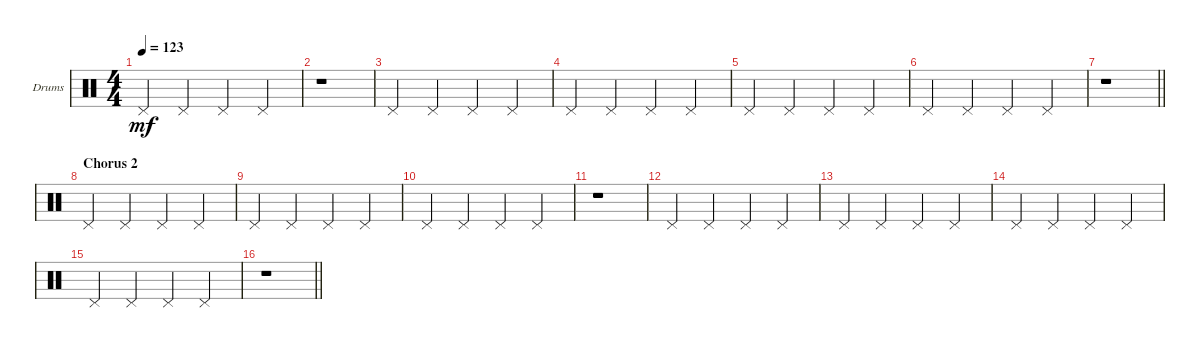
\defaultSystemsLayout 4
\bracketExtendMode groupsimilarinstruments
\firstSystemTrackNameOrientation horizontal
\otherSystemsTrackNameOrientation horizontal
\track ("Pedal Hithat" "Drums") {instrument percussion}
\staff {score}
\articulation defaults
\ts (4 4)
\tempo 123
\clef neutral
\scale
0.333333
\ks c "Pedal Hi-Hat (hit)".4{dy mf} "Pedal Hi-Hat (hit)".4 "Pedal Hi-Hat (hit)".4 "Pedal Hi-Hat (hit)".4
|
\scale
0.333333 r.1 |
\scale
0.333333 "Pedal Hi-Hat (hit)".4 "Pedal Hi-Hat (hit)".4 "Pedal Hi-Hat (hit)".4 "Pedal Hi-Hat (hit)".4 |
\scale
0.333333 "Pedal Hi-Hat (hit)".4 "Pedal Hi-Hat (hit)".4 "Pedal Hi-Hat (hit)".4 "Pedal Hi-Hat (hit)".4 |
\scale
0.333333 "Pedal Hi-Hat (hit)".4 "Pedal Hi-Hat (hit)".4 "Pedal Hi-Hat (hit)".4 "Pedal Hi-Hat (hit)".4 |
\scale
0.333333 "Pedal Hi-Hat (hit)".4 "Pedal Hi-Hat (hit)".4 "Pedal Hi-Hat (hit)".4 "Pedal Hi-Hat (hit)".4 |
\scale
0.333333
\barLineRight lightlight
r.1 |
\section ("" "Chorus 2")
\scale
0.333333 "Pedal Hi-Hat (hit)".4 "Pedal Hi-Hat (hit)".4 "Pedal Hi-Hat (hit)".4 "Pedal Hi-Hat (hit)".4 |
\scale
0.333333 "Pedal Hi-Hat (hit)".4 "Pedal Hi-Hat (hit)".4 "Pedal Hi-Hat (hit)".4 "Pedal Hi-Hat (hit)".4 |
\scale
0.333333 "Pedal Hi-Hat (hit)".4 "Pedal Hi-Hat (hit)".4 "Pedal Hi-Hat (hit)".4 "Pedal Hi-Hat (hit)".4 |
\scale
0.333333 r.1 |
\scale
0.333333 "Pedal Hi-Hat (hit)".4 "Pedal Hi-Hat (hit)".4 "Pedal Hi-Hat (hit)".4 "Pedal Hi-Hat (hit)".4 |
\scale
0.333333 "Pedal Hi-Hat (hit)".4 "Pedal Hi-Hat (hit)".4 "Pedal Hi-Hat (hit)".4 "Pedal Hi-Hat (hit)".4 |
\scale
0.333333 "Pedal Hi-Hat (hit)".4 "Pedal Hi-Hat (hit)".4 "Pedal Hi-Hat (hit)".4 "Pedal Hi-Hat (hit)".4 |
\scale
0.333333 "Pedal Hi-Hat (hit)".4 "Pedal Hi-Hat (hit)".4 "Pedal Hi-Hat (hit)".4 "Pedal Hi-Hat (hit)".4 |
\scale
0.333333
\barLineRight lightlight
r.1
